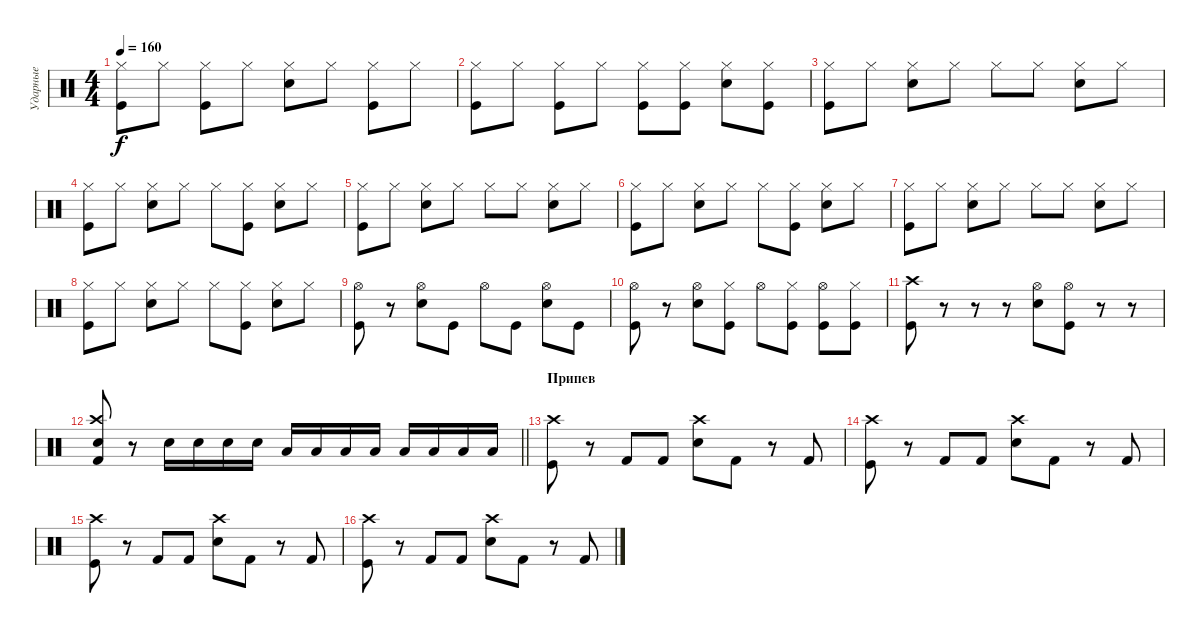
\track ("Ударные" "Ударные") {instrument percussion}
\staff {score}
\articulation defaults
\ts (4 4)
\tempo 160
\clef neutral
\ks c
("Kick (hit)" "Hi-Hat (closed)").8{dy f} "Hi-Hat (closed)".8 ("Kick (hit)" "Hi-Hat (closed)").8 "Hi-Hat (closed)".8 ("Snare (hit) 2" "Hi-Hat (closed)").8 "Hi-Hat (closed)".8 ("Kick (hit)" "Hi-Hat (closed)").8 "Hi-Hat (closed)".8 |
("Kick (hit)" "Hi-Hat (closed)").8 "Hi-Hat (closed)".8 ("Kick (hit)" "Hi-Hat (closed)").8 "Hi-Hat (closed)".8 ("Kick (hit)" "Hi-Hat (closed)").8 ("Kick (hit)" "Hi-Hat (closed)").8 ("Hi-Hat (closed)" "Snare (hit) 2").8 ("Kick (hit)" "Hi-Hat (closed)").8 |
("Kick (hit)" "Hi-Hat (closed)").8 "Hi-Hat (closed)".8 ("Snare (hit) 2" "Hi-Hat (closed)").8 "Hi-Hat (closed)".8 "Hi-Hat (closed)".8 "Hi-Hat (closed)".8 ("Snare (hit) 2" "Hi-Hat (closed)").8 "Hi-Hat (closed)".8 |
("Kick (hit)" "Hi-Hat (closed)").8 "Hi-Hat (closed)".8 ("Snare (hit) 2" "Hi-Hat (closed)").8 "Hi-Hat (closed)".8 "Hi-Hat (closed)".8 ("Kick (hit)" "Hi-Hat (closed)").8 ("Snare (hit) 2" "Hi-Hat (closed)").8 "Hi-Hat (closed)".8 |
("Kick (hit)" "Hi-Hat (closed)").8 "Hi-Hat (closed)".8 ("Snare (hit) 2" "Hi-Hat (closed)").8 "Hi-Hat (closed)".8 "Hi-Hat (closed)".8 "Hi-Hat (closed)".8 ("Snare (hit) 2" "Hi-Hat (closed)").8 "Hi-Hat (closed)".8 |
("Kick (hit)" "Hi-Hat (closed)").8 "Hi-Hat (closed)".8 ("Snare (hit) 2" "Hi-Hat (closed)").8 "Hi-Hat (closed)".8 "Hi-Hat (closed)".8 ("Kick (hit)" "Hi-Hat (closed)").8 ("Snare (hit) 2" "Hi-Hat (closed)").8 "Hi-Hat (closed)".8 |
("Kick (hit)" "Hi-Hat (closed)").8 "Hi-Hat (closed)".8 ("Snare (hit) 2" "Hi-Hat (closed)").8 "Hi-Hat (closed)".8 "Hi-Hat (closed)".8 "Hi-Hat (closed)".8 ("Snare (hit) 2" "Hi-Hat (closed)").8 "Hi-Hat (closed)".8 |
("Kick (hit)" "Hi-Hat (closed)").8 "Hi-Hat (closed)".8 ("Snare (hit) 2" "Hi-Hat (closed)").8 "Hi-Hat (closed)".8 "Hi-Hat (closed)".8 ("Kick (hit)" "Hi-Hat (closed)").8 ("Snare (hit) 2" "Hi-Hat (closed)").8 "Hi-Hat (closed)".8 |
("Kick (hit)" "Hi-Hat (open)").8 r.8 ("Snare (hit) 2" "Hi-Hat (open)").8 "Kick (hit)".8 "Hi-Hat (open)".8 "Kick (hit)".8 ("Snare (hit) 2" "Hi-Hat (open)").8 "Kick (hit)".8 |
("Kick (hit)" "Hi-Hat (open)").8 r.8 ("Snare (hit) 2" "Hi-Hat (open)").8 ("Kick (hit)" "Hi-Hat (closed)").8 "Hi-Hat (open)".8 ("Kick (hit)" "Hi-Hat (closed)").8 ("Kick (hit)" "Hi-Hat (open)").8 ("Kick (hit)" "Hi-Hat (closed)").8 |
("Kick (hit)" "Crash high (hit)").8 r.8 r.8 r.8 ("Snare (hit) 2" "Hi-Hat (open)").8 ("Kick (hit)" "Hi-Hat (open)").8 r.8 r.8 |
\barLineRight lightlight
("Snare (hit) 2" "Kick (hit) 2" "Crash high (hit)").8 r.8 "Snare (hit) 2".16 "Snare (hit) 2".16 "Snare (hit) 2".16 "Snare (hit) 2".16 "Low Tom (hit)".16 "Low Tom (hit)".16 "Low Tom (hit)".16 "Low Tom (hit)".16 "Low Floor Tom (hit)".16 "Low Floor Tom (hit)".16 "Low Floor Tom (hit)".16 "Low Floor Tom (hit)".16 |
\section ("" "Припев")
("Kick (hit)" "Crash high (hit)").8 r.8 "Kick (hit) 2".8 "Kick (hit) 2".8 ("Snare (hit) 2" "Crash high (hit)").8 "Kick (hit) 2".8 r.8 "Kick (hit) 2".8 |
("Kick (hit)" "Crash high (hit)").8 r.8 "Kick (hit) 2".8 "Kick (hit) 2".8 ("Snare (hit) 2" "Crash high (hit)").8 "Kick (hit) 2".8 r.8 "Kick (hit) 2".8 |
("Kick (hit)" "Crash high (hit)").8 r.8 "Kick (hit) 2".8 "Kick (hit) 2".8 ("Snare (hit) 2" "Crash high (hit)").8 "Kick (hit) 2".8 r.8 "Kick (hit) 2".8 |
("Kick (hit)" "Crash high (hit)").8 r.8 "Kick (hit) 2".8 "Kick (hit) 2".8 ("Snare (hit) 2" "Crash high (hit)").8 "Kick (hit) 2".8 r.8 "Kick (hit) 2".8
